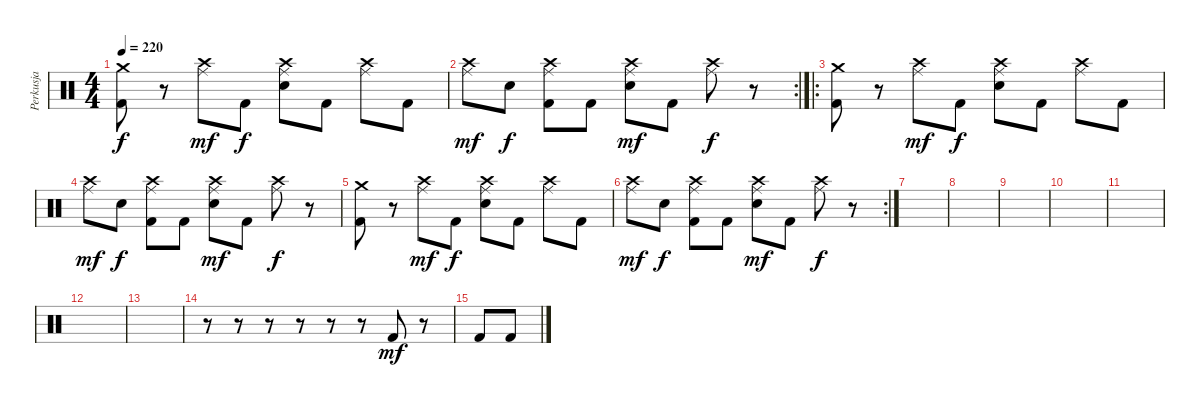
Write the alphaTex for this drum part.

\track ("Perkusja" "Perkusja") {instrument percussion}
\staff {score}
\articulation defaults
\ts (4 4)
\tempo 220
\clef neutral
\ks c
("Crash medium (hit)" "Kick (hit) 2").8{dy f} r.8 ("Crash high (hit)" "Ride (middle)").8{dy mf} "Kick (hit) 2".8{dy f} ("Crash high (hit)" "Snare (hit) 2" "Ride (middle)").8 "Kick (hit) 2".8 ("Crash high (hit)" "Ride (middle)").8 "Kick (hit) 2".8 |
\rc 2
("Crash high (hit)" "Ride (middle)").8{dy mf} "Snare (hit) 2".8{dy f} ("Crash high (hit)" "Kick (hit) 2" "Ride (middle)").8 "Kick (hit) 2".8 ("Crash high (hit)" "Snare (hit) 2" "Ride (middle)").8{dy mf} "Kick (hit) 2".8 ("Crash high (hit)" "Ride (middle)").8{dy f} r.8 |
\ro
("Crash medium (hit)" "Kick (hit) 2").8 r.8 ("Crash high (hit)" "Ride (middle)").8{dy mf} "Kick (hit) 2".8{dy f} ("Crash high (hit)" "Snare (hit) 2" "Ride (middle)").8 "Kick (hit) 2".8 ("Crash high (hit)" "Ride (middle)").8 "Kick (hit) 2".8 |
("Crash high (hit)" "Ride (middle)").8{dy mf} "Snare (hit) 2".8{dy f} ("Crash high (hit)" "Kick (hit) 2" "Ride (middle)").8 "Kick (hit) 2".8 ("Crash high (hit)" "Snare (hit) 2" "Ride (middle)").8{dy mf} "Kick (hit) 2".8 ("Crash high (hit)" "Ride (middle)").8{dy f} r.8 |
("Crash medium (hit)" "Kick (hit) 2").8 r.8 ("Crash high (hit)" "Ride (middle)").8{dy mf} "Kick (hit) 2".8{dy f} ("Crash high (hit)" "Snare (hit) 2" "Ride (middle)").8 "Kick (hit) 2".8 ("Crash high (hit)" "Ride (middle)").8 "Kick (hit) 2".8 |
\rc 2
("Crash high (hit)" "Ride (middle)").8{dy mf} "Snare (hit) 2".8{dy f} ("Crash high (hit)" "Kick (hit) 2" "Ride (middle)").8 "Kick (hit) 2".8 ("Crash high (hit)" "Snare (hit) 2" "Ride (middle)").8{dy mf} "Kick (hit) 2".8 ("Crash high (hit)" "Ride (middle)").8{dy f} r.8 |
|
|
|
|
|
|
|
r.8 r.8 r.8 r.8 r.8 r.8 "Kick (hit) 2".8{dy mf} r.8 |
"Kick (hit) 2".8 "Kick (hit) 2".8
